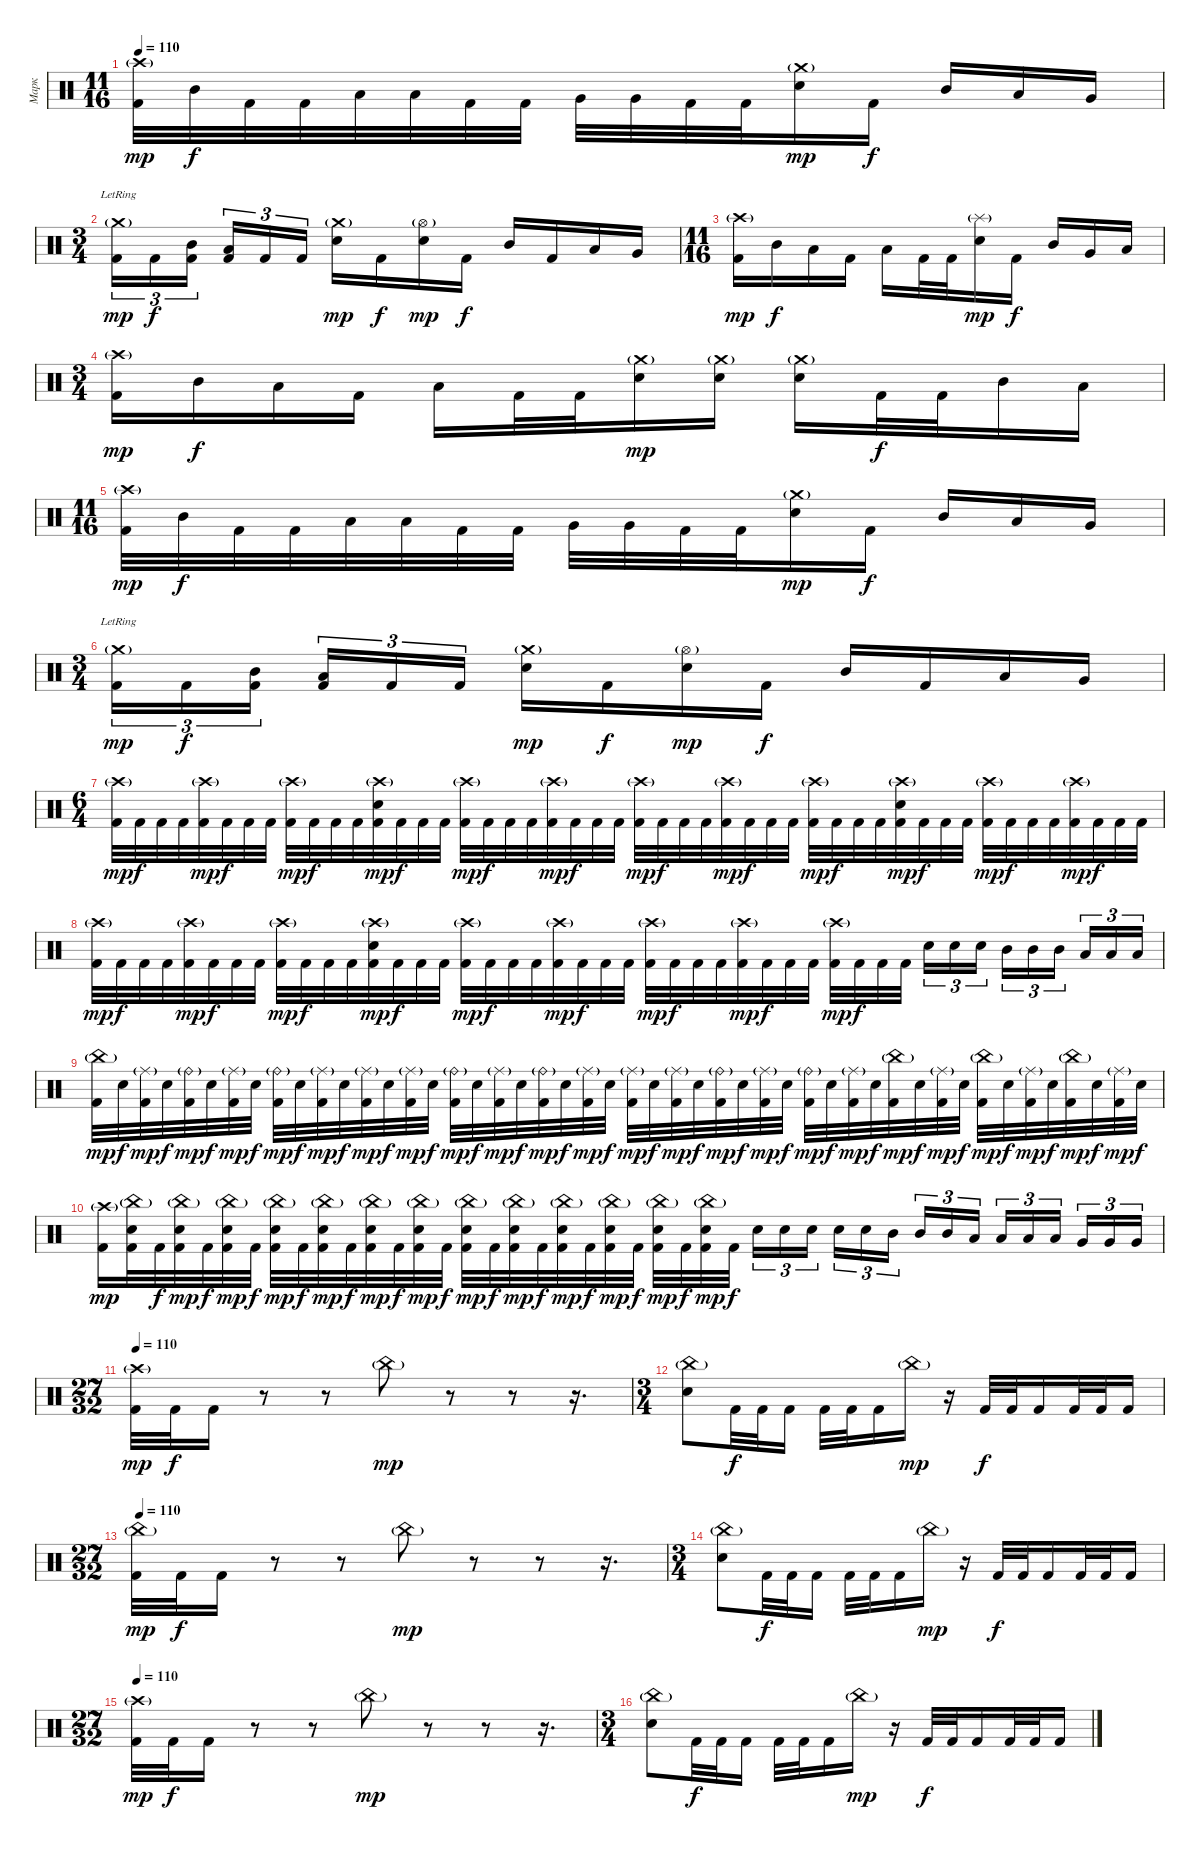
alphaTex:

\track ("Марк " "Марк ") {instrument percussion}
\staff {score}
\articulation defaults
\ts (11 16)
\tempo 110
\clef neutral
\ks c
("Crash high (hit)"{g} "Kick (hit) 2").32{dy mp} "Mid Tom (hit)".32{dy f} "Kick (hit) 2".32 "Kick (hit) 2".32 "Low Tom (hit)".32 "Low Tom (hit)".32 "Kick (hit) 2".32 "Kick (hit) 2".32 "Very Low Tom (hit)".32 "Very Low Tom (hit)".32 "Kick (hit) 2".32 "Kick (hit) 2".32 ("Crash medium (hit)"{g} "Electric Snare (hit)").16{dy mp} "Kick (hit) 2".16{dy f} "Mid Tom (hit)".16 "Low Tom (hit)".16 "Very Low Tom (hit)".16 |
\ts (3 4)
("Crash medium (hit)"{g lr} "Kick (hit) 2").16{tu (3 2) dy mp} "Kick (hit) 2".16{tu (3 2) dy f} ("Mid Tom (hit)" "Kick (hit) 2").16{tu (3 2) beam splitsecondary} ("Low Tom (hit)" "Kick (hit) 2").16{tu (3 2)} "Kick (hit) 2".16{tu (3 2)} "Kick (hit) 2".16{tu (3 2)} ("Crash medium (hit)"{g} "Electric Snare (hit)").16{dy mp} "Kick (hit) 2".16{dy f} ("Hi-Hat (open)"{g} "Electric Snare (hit)").16{dy mp} "Kick (hit) 2".16{dy f} "Mid Tom (hit)".16 "Kick (hit) 2".16 "Low Tom (hit)".16 "Very Low Tom (hit)".16 |
\ts (11 16)
("Crash high (hit)"{g} "Kick (hit) 2").16{dy mp} "Mid Tom (hit)".16{dy f} "Low Tom (hit)".16 "Kick (hit) 2".16 "Low Tom (hit)".16 "Kick (hit) 2".32 "Kick (hit) 2".32 ("Splash (hit)"{g} "Electric Snare (hit)").16{dy mp} "Kick (hit) 2".16{dy f} "Mid Tom (hit)".16 "Very Low Tom (hit)".16 "Low Tom (hit)".16 |
\ts (3 4)
("Crash high (hit)"{g} "Kick (hit) 2").16{dy mp} "Mid Tom (hit)".16{dy f} "Low Tom (hit)".16 "Kick (hit) 2".16 "Low Tom (hit)".16 "Kick (hit) 2".32 "Kick (hit) 2".32 ("Crash medium (hit)"{g} "Electric Snare (hit)").16{dy mp} ("Crash medium (hit)"{g} "Electric Snare (hit)").16 ("Crash medium (hit)"{g} "Electric Snare (hit)").16 "Kick (hit) 2".32{dy f} "Kick (hit) 2".32 "Mid Tom (hit)".16 "Low Tom (hit)".16 |
\ts (11 16)
("Crash high (hit)"{g} "Kick (hit) 2").32{dy mp} "Mid Tom (hit)".32{dy f} "Kick (hit) 2".32 "Kick (hit) 2".32 "Low Tom (hit)".32 "Low Tom (hit)".32 "Kick (hit) 2".32 "Kick (hit) 2".32 "Very Low Tom (hit)".32 "Very Low Tom (hit)".32 "Kick (hit) 2".32 "Kick (hit) 2".32 ("Crash medium (hit)"{g} "Electric Snare (hit)").16{dy mp} "Kick (hit) 2".16{dy f} "Mid Tom (hit)".16 "Low Tom (hit)".16 "Very Low Tom (hit)".16 |
\ts (3 4)
("Crash medium (hit)"{g lr} "Kick (hit) 2").16{tu (3 2) dy mp} "Kick (hit) 2".16{tu (3 2) dy f} ("Mid Tom (hit)" "Kick (hit) 2").16{tu (3 2) beam splitsecondary} ("Low Tom (hit)" "Kick (hit) 2").16{tu (3 2)} "Kick (hit) 2".16{tu (3 2)} "Kick (hit) 2".16{tu (3 2)} ("Crash medium (hit)"{g} "Electric Snare (hit)").16{dy mp} "Kick (hit) 2".16{dy f} ("Hi-Hat (open)"{g} "Electric Snare (hit)").16{dy mp} "Kick (hit) 2".16{dy f} "Mid Tom (hit)".16 "Kick (hit) 2".16 "Low Tom (hit)".16 "Very Low Tom (hit)".16 |
\ts (6 4)
("Crash high (hit)"{g} "Kick (hit) 2").32{dy mp} "Kick (hit) 2".32{dy f} "Kick (hit) 2".32 "Kick (hit) 2".32 ("Crash high (hit)"{g} "Kick (hit) 2").32{dy mp} "Kick (hit) 2".32{dy f} "Kick (hit) 2".32 "Kick (hit) 2".32 ("Crash high (hit)"{g} "Kick (hit) 2").32{dy mp} "Kick (hit) 2".32{dy f} "Kick (hit) 2".32 "Kick (hit) 2".32 ("Crash high (hit)"{g} "Electric Snare (hit)" "Kick (hit) 2").32{dy mp} "Kick (hit) 2".32{dy f} "Kick (hit) 2".32 "Kick (hit) 2".32 ("Crash high (hit)"{g} "Kick (hit) 2").32{dy mp} "Kick (hit) 2".32{dy f} "Kick (hit) 2".32 "Kick (hit) 2".32 ("Crash high (hit)"{g} "Kick (hit) 2").32{dy mp} "Kick (hit) 2".32{dy f} "Kick (hit) 2".32 "Kick (hit) 2".32 ("Crash high (hit)"{g} "Kick (hit) 2").32{dy mp} "Kick (hit) 2".32{dy f} "Kick (hit) 2".32 "Kick (hit) 2".32 ("Crash high (hit)"{g} "Kick (hit) 2").32{dy mp} "Kick (hit) 2".32{dy f} "Kick (hit) 2".32 "Kick (hit) 2".32 ("Crash high (hit)"{g} "Kick (hit) 2").32{dy mp} "Kick (hit) 2".32{dy f} "Kick (hit) 2".32 "Kick (hit) 2".32 ("Crash high (hit)"{g} "Electric Snare (hit)" "Kick (hit) 2").32{dy mp} "Kick (hit) 2".32{dy f} "Kick (hit) 2".32 "Kick (hit) 2".32 ("Crash high (hit)"{g} "Kick (hit) 2").32{dy mp} "Kick (hit) 2".32{dy f} "Kick (hit) 2".32 "Kick (hit) 2".32 ("Crash high (hit)"{g} "Kick (hit) 2").32{dy mp} "Kick (hit) 2".32{dy f} "Kick (hit) 2".32 "Kick (hit) 2".32 |
("Crash high (hit)"{g} "Kick (hit) 2").32{dy mp} "Kick (hit) 2".32{dy f} "Kick (hit) 2".32 "Kick (hit) 2".32 ("Crash high (hit)"{g} "Kick (hit) 2").32{dy mp} "Kick (hit) 2".32{dy f} "Kick (hit) 2".32 "Kick (hit) 2".32 ("Crash high (hit)"{g} "Kick (hit) 2").32{dy mp} "Kick (hit) 2".32{dy f} "Kick (hit) 2".32 "Kick (hit) 2".32 ("Crash high (hit)"{g} "Electric Snare (hit)" "Kick (hit) 2").32{dy mp} "Kick (hit) 2".32{dy f} "Kick (hit) 2".32 "Kick (hit) 2".32 ("Crash high (hit)"{g} "Kick (hit) 2").32{dy mp} "Kick (hit) 2".32{dy f} "Kick (hit) 2".32 "Kick (hit) 2".32 ("Crash high (hit)"{g} "Kick (hit) 2").32{dy mp} "Kick (hit) 2".32{dy f} "Kick (hit) 2".32 "Kick (hit) 2".32 ("Crash high (hit)"{g} "Kick (hit) 2").32{dy mp} "Kick (hit) 2".32{dy f} "Kick (hit) 2".32 "Kick (hit) 2".32 ("Crash high (hit)"{g} "Kick (hit) 2").32{dy mp} "Kick (hit) 2".32{dy f} "Kick (hit) 2".32 "Kick (hit) 2".32 ("Crash high (hit)"{g} "Kick (hit) 2").32{dy mp} "Kick (hit) 2".32{dy f} "Kick (hit) 2".32 "Kick (hit) 2".32{beam splitsecondary} "Electric Snare (hit)".16{tu (3 2)} "Electric Snare (hit)".16{tu (3 2)} "Electric Snare (hit)".16{tu (3 2) beam splitsecondary} "Mid Tom (hit)".16{tu (3 2)} "Mid Tom (hit)".16{tu (3 2)} "Mid Tom (hit)".16{tu (3 2) beam splitsecondary} "Low Tom (hit)".16{tu (3 2)} "Low Tom (hit)".16{tu (3 2)} "Low Tom (hit)".16{tu (3 2)} |
("China (hit)"{g} "Kick (hit) 2").32{dy mp} "Electric Snare (hit)".32{dy f} ("Ride (middle)"{g} "Kick (hit) 2").32{dy mp} "Electric Snare (hit)".32{dy f} ("Ride (bell)"{g} "Kick (hit) 2").32{dy mp} "Electric Snare (hit)".32{dy f} ("Ride (middle)"{g} "Kick (hit) 2").32{dy mp} "Electric Snare (hit)".32{dy f} ("Ride (bell)"{g} "Kick (hit) 2").32{dy mp} "Electric Snare (hit)".32{dy f} ("Ride (middle)"{g} "Kick (hit) 2").32{dy mp} "Electric Snare (hit)".32{dy f} ("Ride (middle)"{g} "Kick (hit) 2").32{dy mp} "Electric Snare (hit)".32{dy f} ("Ride (middle)"{g} "Kick (hit) 2").32{dy mp} "Electric Snare (hit)".32{dy f} ("Ride (bell)"{g} "Kick (hit) 2").32{dy mp} "Electric Snare (hit)".32{dy f} ("Ride (middle)"{g} "Kick (hit) 2").32{dy mp} "Electric Snare (hit)".32{dy f} ("Ride (bell)"{g} "Kick (hit) 2").32{dy mp} "Electric Snare (hit)".32{dy f} ("Ride (middle)"{g} "Kick (hit) 2").32{dy mp} "Electric Snare (hit)".32{dy f} ("Ride (middle)"{g} "Kick (hit) 2").32{dy mp} "Electric Snare (hit)".32{dy f} ("Ride (middle)"{g} "Kick (hit) 2").32{dy mp} "Electric Snare (hit)".32{dy f} ("Ride (bell)"{g} "Kick (hit) 2").32{dy mp} "Electric Snare (hit)".32{dy f} ("Ride (middle)"{g} "Kick (hit) 2").32{dy mp} "Electric Snare (hit)".32{dy f} ("Ride (bell)"{g} "Kick (hit) 2").32{dy mp} "Electric Snare (hit)".32{dy f} ("Ride (middle)"{g} "Kick (hit) 2").32{dy mp} "Electric Snare (hit)".32{dy f} ("China (hit)"{g} "Kick (hit) 2").32{dy mp} "Electric Snare (hit)".32{dy f} ("Ride (middle)"{g} "Kick (hit) 2").32{dy mp} "Electric Snare (hit)".32{dy f} ("China (hit)"{g} "Kick (hit) 2").32{dy mp} "Electric Snare (hit)".32{dy f} ("Ride (middle)"{g} "Kick (hit) 2").32{dy mp} "Electric Snare (hit)".32{dy f} ("China (hit)"{g} "Kick (hit) 2").32{dy mp} "Electric Snare (hit)".32{dy f} ("Ride (middle)"{g} "Kick (hit) 2").32{dy mp} "Electric Snare (hit)".32{dy f} |
("Crash high (hit)"{g} "Kick (hit) 2").16{dy mp} ("China (hit)"{g} "Electric Snare (hit)" "Kick (hit) 2").32 "Kick (hit) 2".32{dy f} ("China (hit)"{g} "Electric Snare (hit)" "Kick (hit) 2").32{dy mp} "Kick (hit) 2".32{dy f} ("China (hit)"{g} "Electric Snare (hit)" "Kick (hit) 2").32{dy mp} "Kick (hit) 2".32{dy f} ("China (hit)"{g} "Electric Snare (hit)" "Kick (hit) 2").32{dy mp} "Kick (hit) 2".32{dy f} ("China (hit)"{g} "Electric Snare (hit)" "Kick (hit) 2").32{dy mp} "Kick (hit) 2".32{dy f} ("China (hit)"{g} "Electric Snare (hit)" "Kick (hit) 2").32{dy mp} "Kick (hit) 2".32{dy f} ("China (hit)"{g} "Electric Snare (hit)" "Kick (hit) 2").32{dy mp} "Kick (hit) 2".32{dy f} ("China (hit)"{g} "Electric Snare (hit)" "Kick (hit) 2").32{dy mp} "Kick (hit) 2".32{dy f} ("China (hit)"{g} "Electric Snare (hit)" "Kick (hit) 2").32{dy mp} "Kick (hit) 2".32{dy f} ("China (hit)"{g} "Electric Snare (hit)" "Kick (hit) 2").32{dy mp} "Kick (hit) 2".32{dy f} ("China (hit)"{g} "Electric Snare (hit)" "Kick (hit) 2").32{dy mp} "Kick (hit) 2".32{dy f} ("China (hit)"{g} "Electric Snare (hit)" "Kick (hit) 2").32{dy mp} "Kick (hit) 2".32{dy f} ("China (hit)"{g} "Electric Snare (hit)" "Kick (hit) 2").32{dy mp} "Kick (hit) 2".32{dy f beam splitsecondary} "Electric Snare (hit)".16{tu (3 2)} "Electric Snare (hit)".16{tu (3 2)} "Electric Snare (hit)".16{tu (3 2) beam splitsecondary} "Electric Snare (hit)".16{tu (3 2)} "Electric Snare (hit)".16{tu (3 2)} "Mid Tom (hit)".16{tu (3 2) beam splitsecondary} "Mid Tom (hit)".16{tu (3 2)} "Mid Tom (hit)".16{tu (3 2)} "Low Tom (hit)".16{tu (3 2) beam splitsecondary} "Low Tom (hit)".16{tu (3 2)} "Low Tom (hit)".16{tu (3 2)} "Low Tom (hit)".16{tu (3 2) beam splitsecondary} "Very Low Tom (hit)".16{tu (3 2)} "Very Low Tom (hit)".16{tu (3 2)} "Very Low Tom (hit)".16{tu (3 2)} |
\ts (27 32)
\tempo 110
("Crash high (hit)"{g} "Kick (hit) 2").32{dy mp} "Kick (hit) 2".32{dy f} "Kick (hit) 2".16 r.8 r.8 "China (hit)"{g}.8{dy mp} r.8 r.8 r.16{d} |
\ts (3 4)
("China (hit)"{g} "Electric Snare (hit)").8 "Kick (hit) 2".32{dy f} "Kick (hit) 2".32 "Kick (hit) 2".16 "Kick (hit) 2".32 "Kick (hit) 2".32 "Kick (hit) 2".16 "China (hit)"{g}.16{dy mp} r.16 "Kick (hit) 2".32{dy f} "Kick (hit) 2".32 "Kick (hit) 2".16 "Kick (hit) 2".32 "Kick (hit) 2".32 "Kick (hit) 2".16 |
\ts (27 32)
\tempo 110
("China (hit)"{g} "Kick (hit) 2").32{dy mp} "Kick (hit) 2".32{dy f} "Kick (hit) 2".16 r.8 r.8 "China (hit)"{g}.8{dy mp} r.8 r.8 r.16{d} |
\ts (3 4)
("China (hit)"{g} "Electric Snare (hit)").8 "Kick (hit) 2".32{dy f} "Kick (hit) 2".32 "Kick (hit) 2".16 "Kick (hit) 2".32 "Kick (hit) 2".32 "Kick (hit) 2".16 "China (hit)"{g}.16{dy mp} r.16 "Kick (hit) 2".32{dy f} "Kick (hit) 2".32 "Kick (hit) 2".16 "Kick (hit) 2".32 "Kick (hit) 2".32 "Kick (hit) 2".16 |
\ts (27 32)
\tempo 110
("Crash high (hit)"{g} "Kick (hit) 2").32{dy mp} "Kick (hit) 2".32{dy f} "Kick (hit) 2".16 r.8 r.8 "China (hit)"{g}.8{dy mp} r.8 r.8 r.16{d} |
\ts (3 4)
("China (hit)"{g} "Electric Snare (hit)").8 "Kick (hit) 2".32{dy f} "Kick (hit) 2".32 "Kick (hit) 2".16 "Kick (hit) 2".32 "Kick (hit) 2".32 "Kick (hit) 2".16 "China (hit)"{g}.16{dy mp} r.16 "Kick (hit) 2".32{dy f} "Kick (hit) 2".32 "Kick (hit) 2".16 "Kick (hit) 2".32 "Kick (hit) 2".32 "Kick (hit) 2".16
